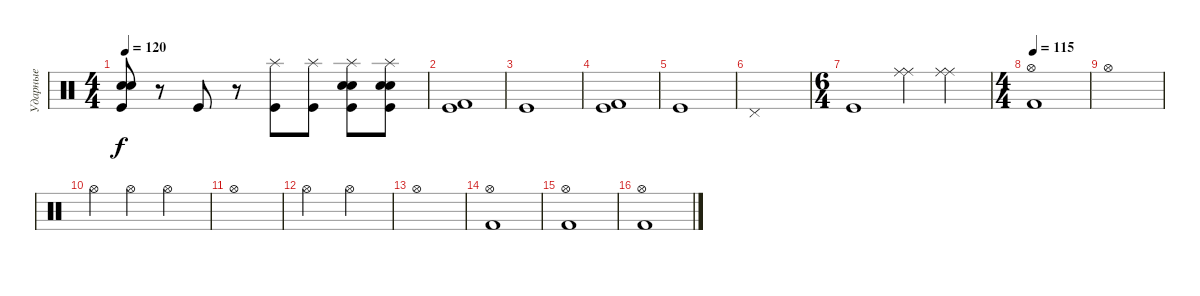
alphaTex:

\track ("Ударные" "Ударные") {instrument percussion}
\staff {score}
\articulation defaults
\ts (4 4)
\tempo 120
\clef neutral
\ks c
("Electric Snare (hit)" "Electric Snare (hit)" "Kick (hit)").8{dy f} r.8 "Kick (hit)".8 r.8 ("Splash (hit)" "Kick (hit)").8 ("Splash (hit)" "Kick (hit)").8 ("Splash (hit)" "Electric Snare (hit)" "Electric Snare (hit)" "Kick (hit)").8 ("Splash (hit)" "Electric Snare (hit)" "Electric Snare (hit)" "Kick (hit)").8 |
("Kick (hit) 2" "Kick (hit)").1 |
"Kick (hit)".1 |
("Kick (hit) 2" "Kick (hit)").1 |
"Kick (hit)".1 |
"Pedal Hi-Hat (hit)".1 |
\ts (6 4)
"Kick (hit)".1 ("Ride (middle)" "Ride (middle)").4 ("Ride (middle)" "Ride (middle)").4 |
\ts (4 4)
\tempo 115
("Hi-Hat (open)" "Kick (hit) 2").1{volume 16} |
"Hi-Hat (open)".1 |
"Hi-Hat (open)".4 "Hi-Hat (open)".4 "Hi-Hat (open)".2 |
"Hi-Hat (open)".1 |
"Hi-Hat (open)".2 "Hi-Hat (open)".2 |
"Hi-Hat (open)".1 |
("Hi-Hat (open)" "Kick (hit) 2").1 |
("Hi-Hat (open)" "Kick (hit) 2").1 |
("Hi-Hat (open)" "Kick (hit) 2").1
